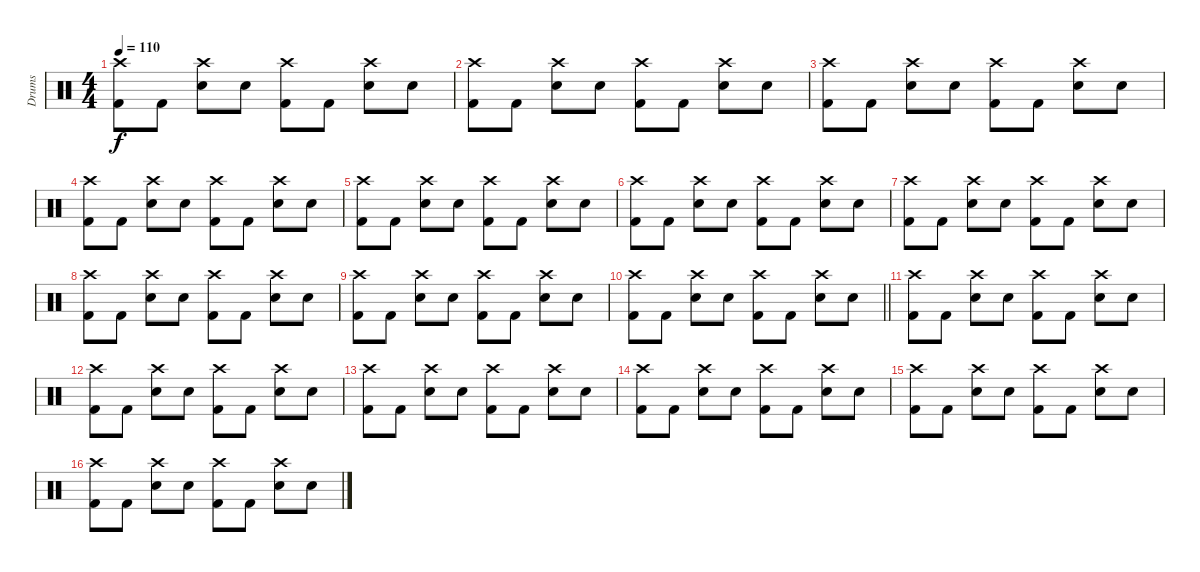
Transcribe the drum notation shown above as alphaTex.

\track ("Drums" "Drums") {instrument percussion}
\staff {score}
\articulation defaults
\ts (4 4)
\tempo 110
\clef neutral
\ks c
("Crash high (hit)" "Kick (hit) 2").8{dy f} "Kick (hit) 2".8 ("Crash high (hit)" "Snare (hit) 2").8 "Snare (hit) 2".8 ("Crash high (hit)" "Kick (hit) 2").8 "Kick (hit) 2".8 ("Crash high (hit)" "Snare (hit) 2").8 "Snare (hit) 2".8 |
("Crash high (hit)" "Kick (hit) 2").8 "Kick (hit) 2".8 ("Crash high (hit)" "Snare (hit) 2").8 "Snare (hit) 2".8 ("Crash high (hit)" "Kick (hit) 2").8 "Kick (hit) 2".8 ("Crash high (hit)" "Snare (hit) 2").8 "Snare (hit) 2".8 |
("Crash high (hit)" "Kick (hit) 2").8 "Kick (hit) 2".8 ("Crash high (hit)" "Snare (hit) 2").8 "Snare (hit) 2".8 ("Crash high (hit)" "Kick (hit) 2").8 "Kick (hit) 2".8 ("Crash high (hit)" "Snare (hit) 2").8 "Snare (hit) 2".8 |
("Crash high (hit)" "Kick (hit) 2").8 "Kick (hit) 2".8 ("Crash high (hit)" "Snare (hit) 2").8 "Snare (hit) 2".8 ("Crash high (hit)" "Kick (hit) 2").8 "Kick (hit) 2".8 ("Crash high (hit)" "Snare (hit) 2").8 "Snare (hit) 2".8 |
("Crash high (hit)" "Kick (hit) 2").8 "Kick (hit) 2".8 ("Crash high (hit)" "Snare (hit) 2").8 "Snare (hit) 2".8 ("Crash high (hit)" "Kick (hit) 2").8 "Kick (hit) 2".8 ("Crash high (hit)" "Snare (hit) 2").8 "Snare (hit) 2".8 |
("Crash high (hit)" "Kick (hit) 2").8 "Kick (hit) 2".8 ("Crash high (hit)" "Snare (hit) 2").8 "Snare (hit) 2".8 ("Crash high (hit)" "Kick (hit) 2").8 "Kick (hit) 2".8 ("Crash high (hit)" "Snare (hit) 2").8 "Snare (hit) 2".8 |
("Crash high (hit)" "Kick (hit) 2").8 "Kick (hit) 2".8 ("Crash high (hit)" "Snare (hit) 2").8 "Snare (hit) 2".8 ("Crash high (hit)" "Kick (hit) 2").8 "Kick (hit) 2".8 ("Crash high (hit)" "Snare (hit) 2").8 "Snare (hit) 2".8 |
("Crash high (hit)" "Kick (hit) 2").8 "Kick (hit) 2".8 ("Crash high (hit)" "Snare (hit) 2").8 "Snare (hit) 2".8 ("Crash high (hit)" "Kick (hit) 2").8 "Kick (hit) 2".8 ("Crash high (hit)" "Snare (hit) 2").8 "Snare (hit) 2".8 |
("Crash high (hit)" "Kick (hit) 2").8 "Kick (hit) 2".8 ("Crash high (hit)" "Snare (hit) 2").8 "Snare (hit) 2".8 ("Crash high (hit)" "Kick (hit) 2").8 "Kick (hit) 2".8 ("Crash high (hit)" "Snare (hit) 2").8 "Snare (hit) 2".8 |
\barLineRight lightlight
("Crash high (hit)" "Kick (hit) 2").8 "Kick (hit) 2".8 ("Crash high (hit)" "Snare (hit) 2").8 "Snare (hit) 2".8 ("Crash high (hit)" "Kick (hit) 2").8 "Kick (hit) 2".8 ("Crash high (hit)" "Snare (hit) 2").8 "Snare (hit) 2".8 |
("Crash high (hit)" "Kick (hit) 2").8 "Kick (hit) 2".8 ("Crash high (hit)" "Snare (hit) 2").8 "Snare (hit) 2".8 ("Crash high (hit)" "Kick (hit) 2").8 "Kick (hit) 2".8 ("Crash high (hit)" "Snare (hit) 2").8 "Snare (hit) 2".8 |
("Crash high (hit)" "Kick (hit) 2").8 "Kick (hit) 2".8 ("Crash high (hit)" "Snare (hit) 2").8 "Snare (hit) 2".8 ("Crash high (hit)" "Kick (hit) 2").8 "Kick (hit) 2".8 ("Crash high (hit)" "Snare (hit) 2").8 "Snare (hit) 2".8 |
("Crash high (hit)" "Kick (hit) 2").8 "Kick (hit) 2".8 ("Crash high (hit)" "Snare (hit) 2").8 "Snare (hit) 2".8 ("Crash high (hit)" "Kick (hit) 2").8 "Kick (hit) 2".8 ("Crash high (hit)" "Snare (hit) 2").8 "Snare (hit) 2".8 |
("Crash high (hit)" "Kick (hit) 2").8 "Kick (hit) 2".8 ("Crash high (hit)" "Snare (hit) 2").8 "Snare (hit) 2".8 ("Crash high (hit)" "Kick (hit) 2").8 "Kick (hit) 2".8 ("Crash high (hit)" "Snare (hit) 2").8 "Snare (hit) 2".8 |
("Crash high (hit)" "Kick (hit) 2").8 "Kick (hit) 2".8 ("Crash high (hit)" "Snare (hit) 2").8 "Snare (hit) 2".8 ("Crash high (hit)" "Kick (hit) 2").8 "Kick (hit) 2".8 ("Crash high (hit)" "Snare (hit) 2").8 "Snare (hit) 2".8 |
("Crash high (hit)" "Kick (hit) 2").8 "Kick (hit) 2".8 ("Crash high (hit)" "Snare (hit) 2").8 "Snare (hit) 2".8 ("Crash high (hit)" "Kick (hit) 2").8 "Kick (hit) 2".8 ("Crash high (hit)" "Snare (hit) 2").8 "Snare (hit) 2".8
